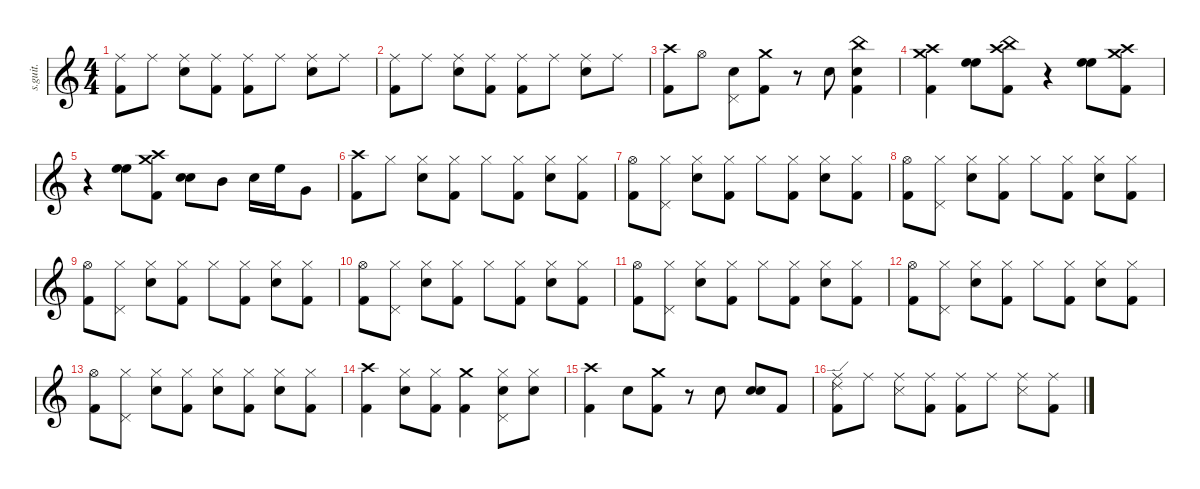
\defaultSystemsLayout 4
\hideDynamics
\bracketExtendMode nobrackets
\track ("Jim Gordon (Drums)" "s.guit.") {instrument percussion}
\staff {score}
\articulation defaults
\ts (4 4)
\tempo (107 hide)
\clef g2
\ks c
("Ride (middle)" "Kick (hit) 2").8{dy mp} "Ride (middle)".8 ("Snare (hit) 2" "Ride (middle)").8 ("Kick (hit) 2" "Ride (middle)").8 ("Ride (middle)" "Kick (hit) 2").8 "Ride (middle)".8 ("Snare (hit) 2" "Ride (middle)").8 "Ride (middle)".8 |
("Ride (middle)" "Kick (hit) 2").8 "Ride (middle)".8 ("Snare (hit) 2" "Ride (middle)").8 ("Kick (hit) 2" "Ride (middle)").8 ("Ride (middle)" "Kick (hit) 2").8 "Ride (middle)".8 ("Snare (hit) 2" "Ride (middle)").8 "Ride (middle)".8 |
("Crash high (hit)" "Kick (hit) 2").8 "Hi-Hat (open)".8 ("Snare (hit) 2" "Pedal Hi-Hat (hit)").8 ("Kick (hit) 2" "Crash medium (hit)").8 r.8 "Snare (hit) 2".8 ("Kick (hit) 2" "Snare (hit) 2" "China (hit)").4 |
("Crash medium (hit)" "Crash high (hit)" "Kick (hit) 2").4 ("High Floor Tom (hit)" "High Floor Tom (hit)").8 ("Kick (hit) 2" "Crash high (hit)" "China (hit)").8 r.4 ("High Floor Tom (hit)" "High Floor Tom (hit)").8 ("Kick (hit) 2" "Crash high (hit)" "Crash medium (hit)").8 |
r.4 ("High Floor Tom (hit)" "High Floor Tom (hit)").8 ("Kick (hit) 2" "Crash high (hit)" "Crash medium (hit)").8 ("Snare (hit) 2" "Snare (hit) 2").8 "Mid Tom (hit)".8 "Snare (hit) 2".16 "High Floor Tom (hit)".16 "Very Low Tom (hit)".8 |
("Crash high (hit)" "Kick (hit) 2").8 "Hi-Hat (closed)".8 ("Snare (hit) 2" "Hi-Hat (closed)").8 ("Hi-Hat (closed)" "Kick (hit) 2").8 "Hi-Hat (closed)".8 ("Hi-Hat (closed)" "Kick (hit) 2").8 ("Snare (hit) 2" "Hi-Hat (closed)").8 ("Kick (hit) 2" "Hi-Hat (closed)").8 |
("Kick (hit) 2" "Hi-Hat (open)").8 ("Hi-Hat (closed)" "Pedal Hi-Hat (hit)").8 ("Snare (hit) 2" "Hi-Hat (closed)").8 ("Kick (hit) 2" "Hi-Hat (closed)").8 "Hi-Hat (closed)".8 ("Hi-Hat (closed)" "Kick (hit) 2").8 ("Snare (hit) 2" "Hi-Hat (closed)").8 ("Kick (hit) 2" "Hi-Hat (closed)").8 |
("Kick (hit) 2" "Hi-Hat (open)").8 ("Hi-Hat (closed)" "Pedal Hi-Hat (hit)").8 ("Snare (hit) 2" "Hi-Hat (closed)").8 ("Kick (hit) 2" "Hi-Hat (closed)").8 "Hi-Hat (closed)".8 ("Hi-Hat (closed)" "Kick (hit) 2").8 ("Snare (hit) 2" "Hi-Hat (closed)").8 ("Kick (hit) 2" "Hi-Hat (closed)").8 |
("Hi-Hat (open)" "Kick (hit) 2").8 ("Hi-Hat (closed)" "Pedal Hi-Hat (hit)").8 ("Snare (hit) 2" "Hi-Hat (closed)").8 ("Kick (hit) 2" "Hi-Hat (closed)").8 "Hi-Hat (closed)".8 ("Hi-Hat (closed)" "Kick (hit) 2").8 ("Snare (hit) 2" "Hi-Hat (closed)").8 ("Kick (hit) 2" "Hi-Hat (closed)").8 |
("Kick (hit) 2" "Hi-Hat (open)").8 ("Hi-Hat (closed)" "Pedal Hi-Hat (hit)").8 ("Snare (hit) 2" "Hi-Hat (closed)").8 ("Kick (hit) 2" "Hi-Hat (closed)").8 "Hi-Hat (closed)".8 ("Hi-Hat (closed)" "Kick (hit) 2").8 ("Snare (hit) 2" "Hi-Hat (closed)").8 ("Kick (hit) 2" "Hi-Hat (closed)").8 |
("Kick (hit) 2" "Hi-Hat (open)").8 ("Hi-Hat (closed)" "Pedal Hi-Hat (hit)").8 ("Snare (hit) 2" "Hi-Hat (closed)").8 ("Kick (hit) 2" "Hi-Hat (closed)").8 "Hi-Hat (closed)".8 ("Hi-Hat (closed)" "Kick (hit) 2").8 ("Snare (hit) 2" "Hi-Hat (closed)").8 ("Kick (hit) 2" "Hi-Hat (closed)").8 |
("Kick (hit) 2" "Hi-Hat (open)").8 ("Hi-Hat (closed)" "Pedal Hi-Hat (hit)").8 ("Snare (hit) 2" "Hi-Hat (closed)").8 ("Kick (hit) 2" "Hi-Hat (closed)").8 "Hi-Hat (closed)".8 ("Hi-Hat (closed)" "Kick (hit) 2").8 ("Snare (hit) 2" "Hi-Hat (closed)").8 ("Kick (hit) 2" "Hi-Hat (closed)").8 |
("Kick (hit) 2" "Hi-Hat (open)").8 ("Hi-Hat (closed)" "Pedal Hi-Hat (hit)").8 ("Snare (hit) 2" "Hi-Hat (closed)").8 ("Kick (hit) 2" "Hi-Hat (closed)").8 ("Snare (hit) 2" "Hi-Hat (closed)").8 ("Hi-Hat (closed)" "Kick (hit) 2").8 ("Snare (hit) 2" "Hi-Hat (closed)").8 ("Kick (hit) 2" "Hi-Hat (closed)").8 |
("Crash high (hit)" "Kick (hit) 2").4 ("Snare (hit) 2" "Hi-Hat (closed)").8 ("Kick (hit) 2" "Hi-Hat (closed)").8 ("Kick (hit) 2" "Crash medium (hit)").4 ("Snare (hit) 2" "Hi-Hat (closed)" "Pedal Hi-Hat (hit)").8 ("Snare (hit) 2" "Hi-Hat (closed)").8 |
("Crash high (hit)" "Kick (hit) 2").4 "Snare (hit) 2".8 ("Kick (hit) 2" "Crash medium (hit)").8 r.8 "Snare (hit) 2".8 ("Snare (hit) 2" "Snare (hit) 2").8 "Kick (hit) 2".8 |
("Ride (edge) 2" "Ride (middle)" "Kick (hit) 2").8 "Ride (middle)".8 ("Snare (side stick) 3" "Ride (middle)").8 ("Kick (hit) 2" "Ride (middle)").8 ("Ride (middle)" "Kick (hit) 2").8 "Ride (middle)".8 ("Snare (side stick) 3" "Ride (middle)").8 ("Kick (hit) 2" "Ride (middle)").8
